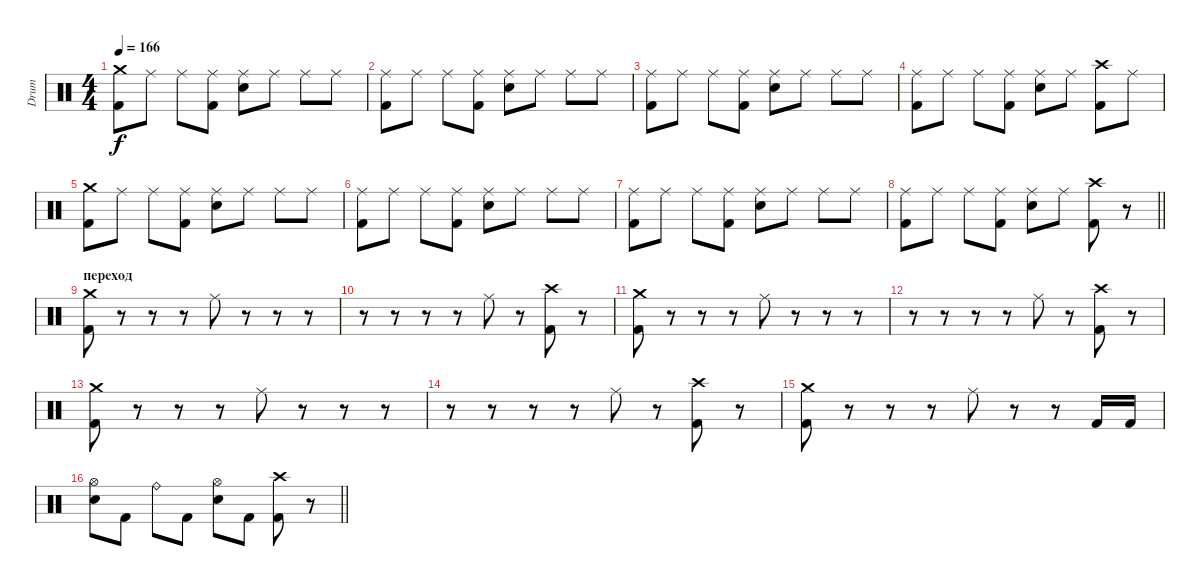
\track ("Drum" "Drum") {instrument percussion}
\staff {score}
\articulation defaults
\ts (4 4)
\section ("" "")
\tempo 166
\clef neutral
\ks c
("Crash medium (hit)" "Kick (hit) 2").8{dy f} "Ride (middle)".8 "Ride (middle)".8 ("Ride (middle)" "Kick (hit) 2").8 ("Ride (middle)" "Snare (hit) 2").8 "Ride (middle)".8 "Ride (middle)".8 "Ride (middle)".8 |
("Ride (middle)" "Kick (hit) 2").8 "Ride (middle)".8 "Ride (middle)".8 ("Ride (middle)" "Kick (hit) 2").8 ("Ride (middle)" "Snare (hit) 2").8 "Ride (middle)".8 "Ride (middle)".8 "Ride (middle)".8 |
("Ride (middle)" "Kick (hit) 2").8 "Ride (middle)".8 "Ride (middle)".8 ("Ride (middle)" "Kick (hit) 2").8 ("Ride (middle)" "Snare (hit) 2").8 "Ride (middle)".8 "Ride (middle)".8 "Ride (middle)".8 |
("Ride (middle)" "Kick (hit) 2").8 "Ride (middle)".8 "Ride (middle)".8 ("Ride (middle)" "Kick (hit) 2").8 ("Ride (middle)" "Snare (hit) 2").8 "Ride (middle)".8 ("Crash high (hit)" "Kick (hit) 2").8 "Ride (middle)".8 |
("Crash medium (hit)" "Kick (hit) 2").8 "Ride (middle)".8 "Ride (middle)".8 ("Ride (middle)" "Kick (hit) 2").8 ("Ride (middle)" "Snare (hit) 2").8 "Ride (middle)".8 "Ride (middle)".8 "Ride (middle)".8 |
("Ride (middle)" "Kick (hit) 2").8 "Ride (middle)".8 "Ride (middle)".8 ("Ride (middle)" "Kick (hit) 2").8 ("Ride (middle)" "Snare (hit) 2").8 "Ride (middle)".8 "Ride (middle)".8 "Ride (middle)".8 |
("Ride (middle)" "Kick (hit) 2").8 "Ride (middle)".8 "Ride (middle)".8 ("Ride (middle)" "Kick (hit) 2").8 ("Ride (middle)" "Snare (hit) 2").8 "Ride (middle)".8 "Ride (middle)".8 "Ride (middle)".8 |
\barLineRight lightlight
("Ride (middle)" "Kick (hit) 2").8 "Ride (middle)".8 "Ride (middle)".8 ("Ride (middle)" "Kick (hit) 2").8 ("Ride (middle)" "Snare (hit) 2").8 "Ride (middle)".8 ("Crash high (hit)" "Kick (hit) 2").8 r.8 |
\section ("" "переход")
("Crash medium (hit)" "Kick (hit) 2").8 r.8 r.8 r.8 "Ride (middle)".8 r.8 r.8 r.8 |
r.8 r.8 r.8 r.8 "Ride (middle)".8 r.8 ("Crash high (hit)" "Kick (hit) 2").8 r.8 |
("Crash medium (hit)" "Kick (hit) 2").8 r.8 r.8 r.8 "Ride (middle)".8 r.8 r.8 r.8 |
r.8 r.8 r.8 r.8 "Ride (middle)".8 r.8 ("Crash high (hit)" "Kick (hit) 2").8 r.8 |
("Crash medium (hit)" "Kick (hit) 2").8 r.8 r.8 r.8 "Ride (middle)".8 r.8 r.8 r.8 |
r.8 r.8 r.8 r.8 "Ride (middle)".8 r.8 ("Crash high (hit)" "Kick (hit) 2").8 r.8 |
("Crash medium (hit)" "Kick (hit) 2").8 r.8 r.8 r.8 "Ride (middle)".8 r.8 r.8 "Kick (hit) 2".16 "Kick (hit) 2".16 |
\barLineRight lightlight
("Hi-Hat (open)" "Snare (hit) 2").8 "Kick (hit) 2".8 "Ride (bell)".8 "Kick (hit) 2".8 ("Hi-Hat (open)" "Snare (hit) 2").8 "Kick (hit) 2".8 ("Crash high (hit)" "Kick (hit) 2").8 r.8
